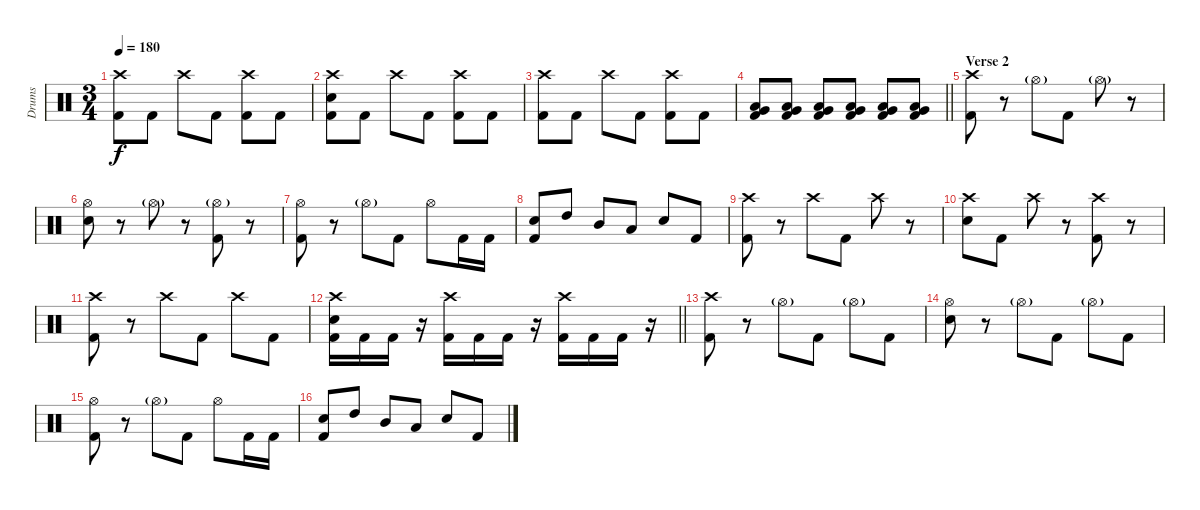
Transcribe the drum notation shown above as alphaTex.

\track ("Drums" "Drums") {instrument percussion}
\staff {score}
\articulation defaults
\ts (3 4)
\tempo 180
\clef neutral
\ks c
("Crash high (hit)" "Kick (hit) 2").8{dy f} "Kick (hit) 2".8 "Crash high (hit)".8 "Kick (hit) 2".8 ("Crash high (hit)" "Kick (hit) 2").8 "Kick (hit) 2".8 |
("Crash high (hit)" "Electric Snare (hit)" "Kick (hit) 2").8 "Kick (hit) 2".8 "Crash high (hit)".8 "Kick (hit) 2".8 ("Crash high (hit)" "Kick (hit) 2").8 "Kick (hit) 2".8 |
("Crash high (hit)" "Kick (hit) 2").8 "Kick (hit) 2".8 "Crash high (hit)".8 "Kick (hit) 2".8 ("Crash high (hit)" "Kick (hit) 2").8 "Kick (hit) 2".8 |
\barLineRight lightlight
("Low Floor Tom (hit)" "Very Low Tom (hit)" "Kick (hit) 2").8 ("Low Floor Tom (hit)" "Very Low Tom (hit)" "Kick (hit) 2").8 ("Low Floor Tom (hit)" "Very Low Tom (hit)" "Kick (hit) 2").8 ("Low Floor Tom (hit)" "Very Low Tom (hit)" "Kick (hit) 2").8 ("Low Floor Tom (hit)" "Very Low Tom (hit)" "Kick (hit) 2").8 ("Low Floor Tom (hit)" "Very Low Tom (hit)" "Kick (hit) 2").8 |
\section ("" "Verse 2")
("Crash high (hit)" "Kick (hit) 2").8 r.8 "Hi-Hat (open)"{g}.8 "Kick (hit) 2".8 "Hi-Hat (open)"{g}.8 r.8 |
("Hi-Hat (open)" "Electric Snare (hit)").8 r.8 "Hi-Hat (open)"{g}.8 r.8 ("Hi-Hat (open)"{g} "Kick (hit) 2").8 r.8 |
("Hi-Hat (open)" "Kick (hit) 2").8 r.8 "Hi-Hat (open)"{g}.8 "Kick (hit) 2".8 "Hi-Hat (open)".8 "Kick (hit) 2".16 "Kick (hit) 2".16 |
("Electric Snare (hit)" "Kick (hit) 2").8 "High Tom (hit)".8 "Mid Tom (hit)".8 "Low Tom (hit)".8 "Electric Snare (hit)".8 "Kick (hit) 2".8 |
("Crash high (hit)" "Kick (hit) 2").8 r.8 "Crash high (hit)".8 "Kick (hit) 2".8 "Crash high (hit)".8 r.8 |
("Crash high (hit)" "Electric Snare (hit)").8 "Kick (hit) 2".8 "Crash high (hit)".8 r.8 ("Crash high (hit)" "Kick (hit) 2").8 r.8 |
("Crash high (hit)" "Kick (hit) 2").8 r.8 "Crash high (hit)".8 "Kick (hit) 2".8 "Crash high (hit)".8 "Kick (hit) 2".8 |
\barLineRight lightlight
("Crash high (hit)" "Electric Snare (hit)" "Kick (hit) 2").16 "Kick (hit) 2".16 "Kick (hit) 2".16 r.16 ("Crash high (hit)" "Kick (hit) 2").16 "Kick (hit) 2".16 "Kick (hit) 2".16 r.16 ("Crash high (hit)" "Kick (hit) 2").16 "Kick (hit) 2".16 "Kick (hit) 2".16 r.16 |
("Crash high (hit)" "Kick (hit) 2").8 r.8 "Hi-Hat (open)"{g}.8 "Kick (hit) 2".8 "Hi-Hat (open)"{g}.8 "Kick (hit) 2".8 |
("Hi-Hat (open)" "Electric Snare (hit)").8 r.8 "Hi-Hat (open)"{g}.8 "Kick (hit) 2".8 "Hi-Hat (open)"{g}.8 "Kick (hit) 2".8 |
("Hi-Hat (open)" "Kick (hit) 2").8 r.8 "Hi-Hat (open)"{g}.8 "Kick (hit) 2".8 "Hi-Hat (open)".8 "Kick (hit) 2".16 "Kick (hit) 2".16 |
("Electric Snare (hit)" "Kick (hit) 2").8 "High Tom (hit)".8 "Mid Tom (hit)".8 "Low Tom (hit)".8 "Electric Snare (hit)".8 "Kick (hit) 2".8
